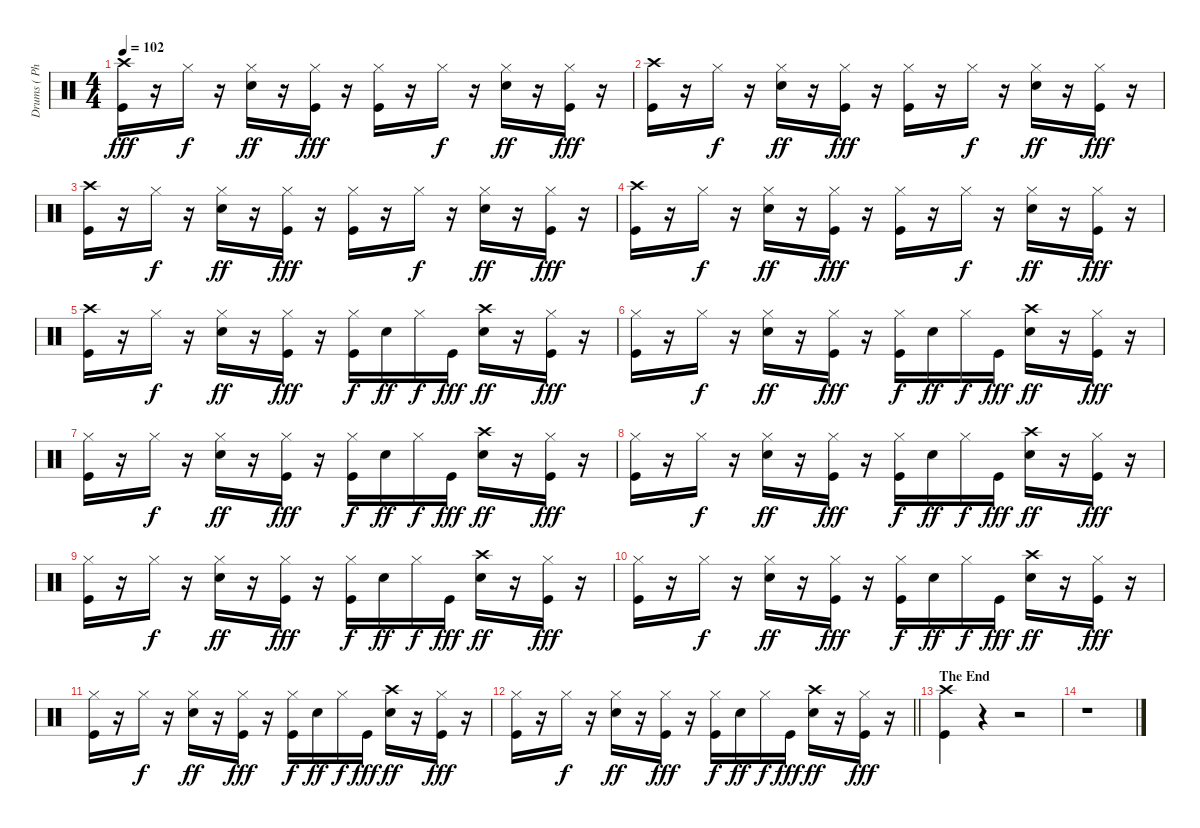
\track ("Drums ( Phillip Selway )" "Drums ( Ph") {instrument percussion}
\staff {score}
\articulation defaults
\ts (4 4)
\tempo 102
\clef neutral
\ks c
("Crash high (hit)" "Kick (hit)").16{dy fff} r.16 "Hi-Hat (closed)".16{dy f} r.16 ("Hi-Hat (closed)" "Electric Snare (hit)").16{dy ff} r.16 ("Hi-Hat (closed)" "Kick (hit)").16{dy fff} r.16 ("Hi-Hat (closed)" "Kick (hit)").16 r.16 "Hi-Hat (closed)".16{dy f} r.16 ("Hi-Hat (closed)" "Electric Snare (hit)").16{dy ff} r.16 ("Hi-Hat (closed)" "Kick (hit)").16{dy fff} r.16 |
("Crash high (hit)" "Kick (hit)").16 r.16 "Hi-Hat (closed)".16{dy f} r.16 ("Hi-Hat (closed)" "Electric Snare (hit)").16{dy ff} r.16 ("Hi-Hat (closed)" "Kick (hit)").16{dy fff} r.16 ("Hi-Hat (closed)" "Kick (hit)").16 r.16 "Hi-Hat (closed)".16{dy f} r.16 ("Hi-Hat (closed)" "Electric Snare (hit)").16{dy ff} r.16 ("Hi-Hat (closed)" "Kick (hit)").16{dy fff} r.16 |
("Crash high (hit)" "Kick (hit)").16 r.16 "Hi-Hat (closed)".16{dy f} r.16 ("Hi-Hat (closed)" "Electric Snare (hit)").16{dy ff} r.16 ("Hi-Hat (closed)" "Kick (hit)").16{dy fff} r.16 ("Hi-Hat (closed)" "Kick (hit)").16 r.16 "Hi-Hat (closed)".16{dy f} r.16 ("Hi-Hat (closed)" "Electric Snare (hit)").16{dy ff} r.16 ("Hi-Hat (closed)" "Kick (hit)").16{dy fff} r.16 |
("Crash high (hit)" "Kick (hit)").16 r.16 "Hi-Hat (closed)".16{dy f} r.16 ("Hi-Hat (closed)" "Electric Snare (hit)").16{dy ff} r.16 ("Hi-Hat (closed)" "Kick (hit)").16{dy fff} r.16 ("Hi-Hat (closed)" "Kick (hit)").16 r.16 "Hi-Hat (closed)".16{dy f} r.16 ("Hi-Hat (closed)" "Electric Snare (hit)").16{dy ff} r.16 ("Hi-Hat (closed)" "Kick (hit)").16{dy fff} r.16 |
("Crash high (hit)" "Kick (hit)").16 r.16 "Hi-Hat (closed)".16{dy f} r.16 ("Hi-Hat (closed)" "Electric Snare (hit)").16{dy ff} r.16 ("Hi-Hat (closed)" "Kick (hit)").16{dy fff} r.16 ("Hi-Hat (closed)" "Kick (hit)").16{dy f} "Electric Snare (hit)".16{dy ff} "Hi-Hat (closed)".16{dy f} "Kick (hit)".16{dy fff} ("Crash high (hit)" "Electric Snare (hit)").16{dy ff} r.16 ("Hi-Hat (closed)" "Kick (hit)").16{dy fff} r.16 |
("Hi-Hat (closed)" "Kick (hit)").16 r.16 "Hi-Hat (closed)".16{dy f} r.16 ("Hi-Hat (closed)" "Electric Snare (hit)").16{dy ff} r.16 ("Hi-Hat (closed)" "Kick (hit)").16{dy fff} r.16 ("Hi-Hat (closed)" "Kick (hit)").16{dy f} "Electric Snare (hit)".16{dy ff} "Hi-Hat (closed)".16{dy f} "Kick (hit)".16{dy fff} ("Crash high (hit)" "Electric Snare (hit)").16{dy ff} r.16 ("Hi-Hat (closed)" "Kick (hit)").16{dy fff} r.16 |
("Hi-Hat (closed)" "Kick (hit)").16 r.16 "Hi-Hat (closed)".16{dy f} r.16 ("Hi-Hat (closed)" "Electric Snare (hit)").16{dy ff} r.16 ("Hi-Hat (closed)" "Kick (hit)").16{dy fff} r.16 ("Hi-Hat (closed)" "Kick (hit)").16{dy f} "Electric Snare (hit)".16{dy ff} "Hi-Hat (closed)".16{dy f} "Kick (hit)".16{dy fff} ("Crash high (hit)" "Electric Snare (hit)").16{dy ff} r.16 ("Hi-Hat (closed)" "Kick (hit)").16{dy fff} r.16 |
("Hi-Hat (closed)" "Kick (hit)").16 r.16 "Hi-Hat (closed)".16{dy f} r.16 ("Hi-Hat (closed)" "Electric Snare (hit)").16{dy ff} r.16 ("Hi-Hat (closed)" "Kick (hit)").16{dy fff} r.16 ("Hi-Hat (closed)" "Kick (hit)").16{dy f} "Electric Snare (hit)".16{dy ff} "Hi-Hat (closed)".16{dy f} "Kick (hit)".16{dy fff} ("Crash high (hit)" "Electric Snare (hit)").16{dy ff} r.16 ("Hi-Hat (closed)" "Kick (hit)").16{dy fff} r.16 |
("Hi-Hat (closed)" "Kick (hit)").16 r.16 "Hi-Hat (closed)".16{dy f} r.16 ("Hi-Hat (closed)" "Electric Snare (hit)").16{dy ff} r.16 ("Hi-Hat (closed)" "Kick (hit)").16{dy fff} r.16 ("Hi-Hat (closed)" "Kick (hit)").16{dy f} "Electric Snare (hit)".16{dy ff} "Hi-Hat (closed)".16{dy f} "Kick (hit)".16{dy fff} ("Crash high (hit)" "Electric Snare (hit)").16{dy ff} r.16 ("Hi-Hat (closed)" "Kick (hit)").16{dy fff} r.16 |
("Hi-Hat (closed)" "Kick (hit)").16 r.16 "Hi-Hat (closed)".16{dy f} r.16 ("Hi-Hat (closed)" "Electric Snare (hit)").16{dy ff} r.16 ("Hi-Hat (closed)" "Kick (hit)").16{dy fff} r.16 ("Hi-Hat (closed)" "Kick (hit)").16{dy f} "Electric Snare (hit)".16{dy ff} "Hi-Hat (closed)".16{dy f} "Kick (hit)".16{dy fff} ("Crash high (hit)" "Electric Snare (hit)").16{dy ff} r.16 ("Hi-Hat (closed)" "Kick (hit)").16{dy fff} r.16 |
("Hi-Hat (closed)" "Kick (hit)").16 r.16 "Hi-Hat (closed)".16{dy f} r.16 ("Hi-Hat (closed)" "Electric Snare (hit)").16{dy ff} r.16 ("Hi-Hat (closed)" "Kick (hit)").16{dy fff} r.16 ("Hi-Hat (closed)" "Kick (hit)").16{dy f} "Electric Snare (hit)".16{dy ff} "Hi-Hat (closed)".16{dy f} "Kick (hit)".16{dy fff} ("Crash high (hit)" "Electric Snare (hit)").16{dy ff} r.16 ("Hi-Hat (closed)" "Kick (hit)").16{dy fff} r.16 |
\barLineRight lightlight
("Hi-Hat (closed)" "Kick (hit)").16 r.16 "Hi-Hat (closed)".16{dy f} r.16 ("Hi-Hat (closed)" "Electric Snare (hit)").16{dy ff} r.16 ("Hi-Hat (closed)" "Kick (hit)").16{dy fff} r.16 ("Hi-Hat (closed)" "Kick (hit)").16{dy f} "Electric Snare (hit)".16{dy ff} "Hi-Hat (closed)".16{dy f} "Kick (hit)".16{dy fff} ("Crash high (hit)" "Electric Snare (hit)").16{dy ff} r.16 ("Hi-Hat (closed)" "Kick (hit)").16{dy fff} r.16 |
\section ("" "The End")
("Crash high (hit)" "Kick (hit)").4 r.4 r.2 |
r.1
